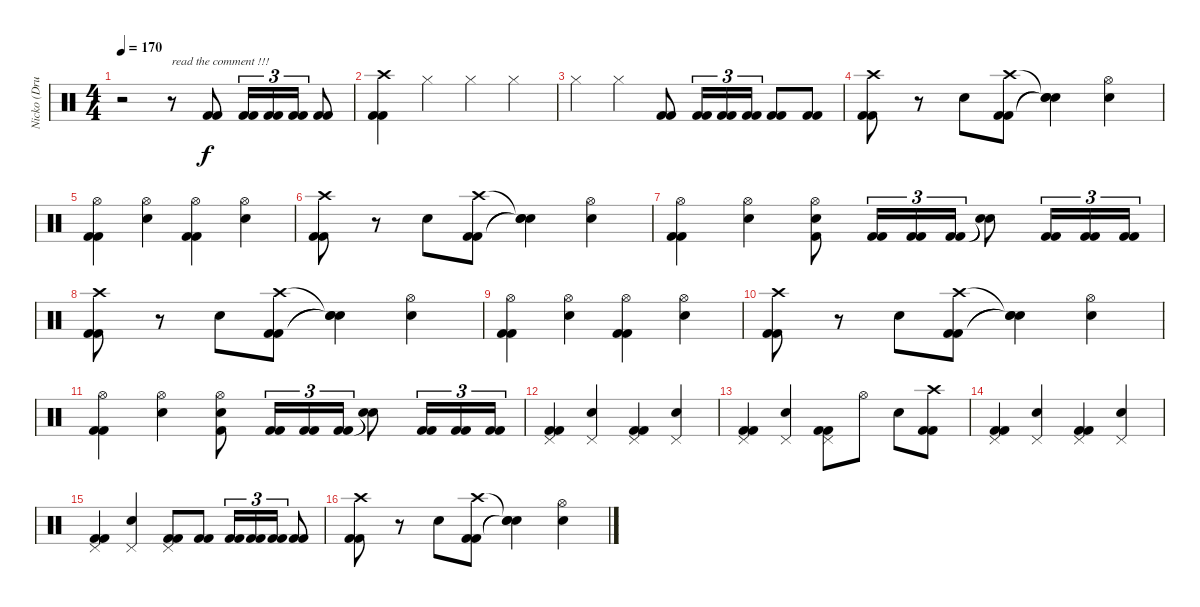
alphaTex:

\track ("Nicko (Drums)" "Nicko (Dru") {instrument percussion}
\staff {score}
\articulation defaults
\ts (4 4)
\tempo 170
\clef neutral
\ks c
r.2{dy f} r.8{txt "read the comment !!!"} ("Kick (hit) 2" "Kick (hit) 2").8 ("Kick (hit) 2" "Kick (hit) 2").16{tu (3 2)} ("Kick (hit) 2" "Kick (hit) 2").16{tu (3 2)} ("Kick (hit) 2" "Kick (hit) 2").16{tu (3 2)} ("Kick (hit) 2" "Kick (hit) 2").8 |
("Crash high (hit)" "Kick (hit) 2" "Kick (hit) 2").4 "Hi-Hat (closed)".4 "Hi-Hat (closed)".4 "Hi-Hat (closed)".4 |
"Hi-Hat (closed)".4 "Hi-Hat (closed)".4 ("Kick (hit) 2" "Kick (hit) 2").8 ("Kick (hit) 2" "Kick (hit) 2").16{tu (3 2)} ("Kick (hit) 2" "Kick (hit) 2").16{tu (3 2)} ("Kick (hit) 2" "Kick (hit) 2").16{tu (3 2)} ("Kick (hit) 2" "Kick (hit) 2").8 ("Kick (hit) 2" "Kick (hit) 2").8 |
("Crash high (hit)" "Kick (hit) 2" "Kick (hit) 2").8 r.8 "Snare (hit) 2".8 ("Crash high (hit)" "Kick (hit) 2" "Kick (hit) 2").8 ("Snare (hit)"{t} "Snare (hit)"{t} "Snare (hit)"{t}).4 ("Hi-Hat (open)" "Snare (hit) 2").4 |
("Hi-Hat (open)" "Kick (hit) 2" "Kick (hit) 2").4 ("Hi-Hat (open)" "Snare (hit) 2").4 ("Hi-Hat (open)" "Kick (hit) 2" "Kick (hit) 2").4 ("Hi-Hat (open)" "Snare (hit) 2").4 |
("Crash high (hit)" "Kick (hit) 2" "Kick (hit) 2").8 r.8 "Snare (hit) 2".8 ("Crash high (hit)" "Kick (hit) 2" "Kick (hit) 2").8 ("Snare (hit)"{t} "Snare (hit)"{t} "Snare (hit)"{t}).4 ("Hi-Hat (open)" "Snare (hit) 2").4 |
("Hi-Hat (open)" "Kick (hit) 2" "Kick (hit) 2").4 ("Hi-Hat (open)" "Snare (hit) 2").4 ("Hi-Hat (open)" "Snare (hit) 2" "Kick (hit) 2").8 ("Kick (hit) 2" "Kick (hit) 2").16{tu (3 2)} ("Kick (hit) 2" "Kick (hit) 2").16{tu (3 2)} ("Kick (hit) 2" "Kick (hit) 2").16{tu (3 2)} ("Snare (hit)"{t} "Snare (hit)"{t}).8 ("Kick (hit) 2" "Kick (hit) 2").16{tu (3 2)} ("Kick (hit) 2" "Kick (hit) 2").16{tu (3 2)} ("Kick (hit) 2" "Kick (hit) 2").16{tu (3 2)} |
("Crash high (hit)" "Kick (hit) 2" "Kick (hit) 2").8 r.8 "Snare (hit) 2".8 ("Crash high (hit)" "Kick (hit) 2" "Kick (hit) 2").8 ("Snare (hit)"{t} "Snare (hit)"{t} "Snare (hit)"{t}).4 ("Hi-Hat (open)" "Snare (hit) 2").4 |
("Hi-Hat (open)" "Kick (hit) 2" "Kick (hit) 2").4 ("Hi-Hat (open)" "Snare (hit) 2").4 ("Hi-Hat (open)" "Kick (hit) 2" "Kick (hit) 2").4 ("Hi-Hat (open)" "Snare (hit) 2").4 |
("Crash high (hit)" "Kick (hit) 2" "Kick (hit) 2").8 r.8 "Snare (hit) 2".8 ("Crash high (hit)" "Kick (hit) 2" "Kick (hit) 2").8 ("Snare (hit)"{t} "Snare (hit)"{t} "Snare (hit)"{t}).4 ("Hi-Hat (open)" "Snare (hit) 2").4 |
("Hi-Hat (open)" "Kick (hit) 2" "Kick (hit) 2").4 ("Hi-Hat (open)" "Snare (hit) 2").4 ("Hi-Hat (open)" "Snare (hit) 2" "Kick (hit) 2").8 ("Kick (hit) 2" "Kick (hit) 2").16{tu (3 2)} ("Kick (hit) 2" "Kick (hit) 2").16{tu (3 2)} ("Kick (hit) 2" "Kick (hit) 2").16{tu (3 2)} ("Snare (hit)"{t} "Snare (hit)"{t}).8 ("Kick (hit) 2" "Kick (hit) 2").16{tu (3 2)} ("Kick (hit) 2" "Kick (hit) 2").16{tu (3 2)} ("Kick (hit) 2" "Kick (hit) 2").16{tu (3 2)} |
("Pedal Hi-Hat (hit)" "Kick (hit) 2" "Kick (hit) 2").4 ("Pedal Hi-Hat (hit)" "Snare (hit) 2").4 ("Pedal Hi-Hat (hit)" "Kick (hit) 2" "Kick (hit) 2").4 ("Pedal Hi-Hat (hit)" "Snare (hit) 2").4 |
("Pedal Hi-Hat (hit)" "Kick (hit) 2" "Kick (hit) 2").4 ("Pedal Hi-Hat (hit)" "Snare (hit) 2").4 ("Pedal Hi-Hat (hit)" "Kick (hit) 2" "Kick (hit) 2").8 "Hi-Hat (open)".8 "Snare (hit) 2".8 ("Crash high (hit)" "Kick (hit) 2" "Kick (hit) 2").8 |
("Pedal Hi-Hat (hit)" "Kick (hit) 2" "Kick (hit) 2").4 ("Pedal Hi-Hat (hit)" "Snare (hit) 2").4 ("Pedal Hi-Hat (hit)" "Kick (hit) 2" "Kick (hit) 2").4 ("Pedal Hi-Hat (hit)" "Snare (hit) 2").4 |
("Pedal Hi-Hat (hit)" "Kick (hit) 2" "Kick (hit) 2").4 ("Pedal Hi-Hat (hit)" "Snare (hit) 2").4 ("Pedal Hi-Hat (hit)" "Kick (hit) 2" "Kick (hit) 2").8 ("Kick (hit) 2" "Kick (hit) 2").8 ("Kick (hit) 2" "Kick (hit) 2").16{tu (3 2)} ("Kick (hit) 2" "Kick (hit) 2").16{tu (3 2)} ("Kick (hit) 2" "Kick (hit) 2").16{tu (3 2)} ("Kick (hit) 2" "Kick (hit) 2").8 |
("Crash high (hit)" "Kick (hit) 2" "Kick (hit) 2").8 r.8 "Snare (hit) 2".8 ("Crash high (hit)" "Kick (hit) 2" "Kick (hit) 2").8 ("Snare (hit)"{t} "Snare (hit)"{t} "Snare (hit)"{t}).4 ("Hi-Hat (open)" "Snare (hit) 2").4
